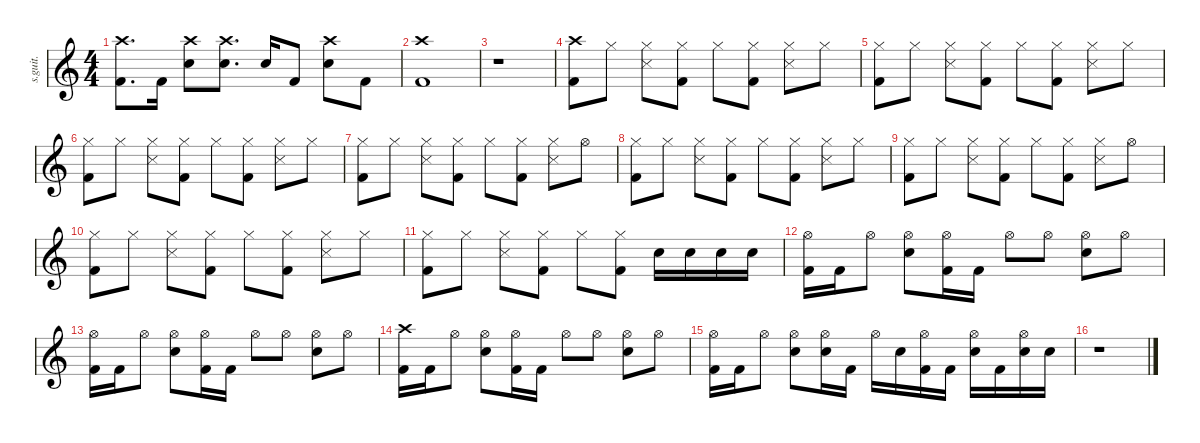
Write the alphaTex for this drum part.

\defaultSystemsLayout 4
\hideDynamics
\bracketExtendMode nobrackets
\track ("" "s.guit.") {instrument percussion}
\staff {score}
\articulation defaults
\ts (4 4)
\tempo (95 hide)
\clef g2
\ks c
("Crash high (hit)" "Kick (hit) 2").8{d dy f} "Kick (hit) 2".16 ("Crash high (hit)" "Snare (hit) 2").8 ("Crash high (hit)" "Snare (hit) 2").8{d} "Snare (hit) 2".16 "Kick (hit) 2".8 ("Crash high (hit)" "Snare (hit) 2").8 "Kick (hit) 2".8 |
("Crash high (hit)" "Kick (hit) 2").1 |
r.1 |
("Crash high (hit)" "Kick (hit) 2").8 "Hi-Hat (closed)".8 ("Hi-Hat (closed)" "Snare (side stick) 3").8 ("Hi-Hat (closed)" "Kick (hit) 2").8 "Hi-Hat (closed)".8 ("Hi-Hat (closed)" "Kick (hit) 2").8 ("Hi-Hat (closed)" "Snare (side stick) 3").8 "Hi-Hat (closed)".8 |
("Hi-Hat (closed)" "Kick (hit) 2").8 "Hi-Hat (closed)".8 ("Hi-Hat (closed)" "Snare (side stick) 3").8 ("Hi-Hat (closed)" "Kick (hit) 2").8 "Hi-Hat (closed)".8 ("Hi-Hat (closed)" "Kick (hit) 2").8 ("Hi-Hat (closed)" "Snare (side stick) 3").8 "Hi-Hat (closed)".8 |
("Hi-Hat (closed)" "Kick (hit) 2").8 "Hi-Hat (closed)".8 ("Hi-Hat (closed)" "Snare (side stick) 3").8 ("Hi-Hat (closed)" "Kick (hit) 2").8 "Hi-Hat (closed)".8 ("Hi-Hat (closed)" "Kick (hit) 2").8 ("Hi-Hat (closed)" "Snare (side stick) 3").8 "Hi-Hat (closed)".8 |
("Hi-Hat (closed)" "Kick (hit) 2").8 "Hi-Hat (closed)".8 ("Hi-Hat (closed)" "Snare (side stick) 3").8 ("Hi-Hat (closed)" "Kick (hit) 2").8 "Hi-Hat (closed)".8 ("Hi-Hat (closed)" "Kick (hit) 2").8 ("Hi-Hat (closed)" "Snare (side stick) 3").8 "Hi-Hat (open)".8 |
("Hi-Hat (closed)" "Kick (hit) 2").8 "Hi-Hat (closed)".8 ("Hi-Hat (closed)" "Snare (side stick) 3").8 ("Hi-Hat (closed)" "Kick (hit) 2").8 "Hi-Hat (closed)".8 ("Hi-Hat (closed)" "Kick (hit) 2").8 ("Hi-Hat (closed)" "Snare (side stick) 3").8 "Hi-Hat (closed)".8 |
("Hi-Hat (closed)" "Kick (hit) 2").8 "Hi-Hat (closed)".8 ("Hi-Hat (closed)" "Snare (side stick) 3").8 ("Hi-Hat (closed)" "Kick (hit) 2").8 "Hi-Hat (closed)".8 ("Hi-Hat (closed)" "Kick (hit) 2").8 ("Hi-Hat (closed)" "Snare (side stick) 3").8 "Hi-Hat (open)".8 |
("Hi-Hat (closed)" "Kick (hit) 2").8 "Hi-Hat (closed)".8 ("Hi-Hat (closed)" "Snare (side stick) 3").8 ("Hi-Hat (closed)" "Kick (hit) 2").8 "Hi-Hat (closed)".8 ("Hi-Hat (closed)" "Kick (hit) 2").8 ("Hi-Hat (closed)" "Snare (side stick) 3").8 "Hi-Hat (closed)".8 |
("Hi-Hat (closed)" "Kick (hit) 2").8 "Hi-Hat (closed)".8 ("Hi-Hat (closed)" "Snare (side stick) 3").8 ("Hi-Hat (closed)" "Kick (hit) 2").8 "Hi-Hat (closed)".8 ("Hi-Hat (closed)" "Kick (hit) 2").8 "Snare (hit) 2".16 "Snare (hit) 2".16 "Snare (hit) 2".16 "Snare (hit) 2".16 |
("Hi-Hat (open)" "Kick (hit) 2").16 "Kick (hit) 2".16 "Hi-Hat (open)".8 ("Hi-Hat (open)" "Snare (hit) 2").8 ("Hi-Hat (open)" "Kick (hit) 2").16 "Kick (hit) 2".16 "Hi-Hat (open)".8 "Hi-Hat (open)".8 ("Hi-Hat (open)" "Snare (hit) 2").8 "Hi-Hat (open)".8 |
("Hi-Hat (open)" "Kick (hit) 2").16 "Kick (hit) 2".16 "Hi-Hat (open)".8 ("Hi-Hat (open)" "Snare (hit) 2").8 ("Hi-Hat (open)" "Kick (hit) 2").16 "Kick (hit) 2".16 "Hi-Hat (open)".8 "Hi-Hat (open)".8 ("Hi-Hat (open)" "Snare (hit) 2").8 "Hi-Hat (open)".8 |
("Crash high (hit)" "Kick (hit) 2").16 "Kick (hit) 2".16 "Hi-Hat (open)".8 ("Hi-Hat (open)" "Snare (hit) 2").8 ("Hi-Hat (open)" "Kick (hit) 2").16 "Kick (hit) 2".16 "Hi-Hat (open)".8 "Hi-Hat (open)".8 ("Hi-Hat (open)" "Snare (hit) 2").8 "Hi-Hat (open)".8 |
("Hi-Hat (open)" "Kick (hit) 2").16 "Kick (hit) 2".16 "Hi-Hat (open)".8 ("Hi-Hat (open)" "Snare (hit) 2").8 ("Hi-Hat (open)" "Snare (hit) 2").16 "Kick (hit) 2".16 "Hi-Hat (open)".16 "Snare (hit) 2".16 ("Hi-Hat (open)" "Kick (hit) 2").16 "Kick (hit) 2".16 ("Hi-Hat (open)" "Snare (hit) 2").16 "Kick (hit) 2".16 ("Hi-Hat (open)" "Snare (hit) 2").16 "Snare (hit) 2".16 |
r.1
